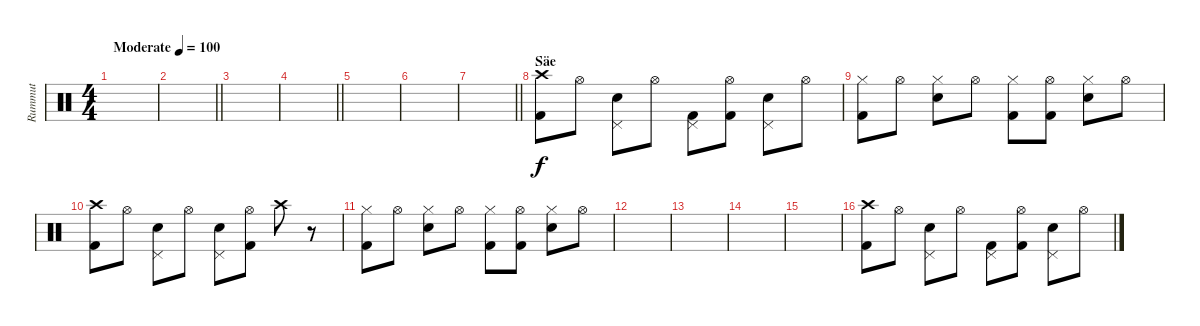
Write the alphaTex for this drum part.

\track ("Rummut" "Rummut") {instrument percussion}
\staff {score}
\articulation defaults
\ts (4 4)
\tempo (100 "Moderate")
\clef neutral
\ks c
|
\barLineRight lightlight
|
|
\barLineRight lightlight
|
|
|
\barLineRight lightlight
|
\section ("" "Säe")
("Crash high (hit)" "Kick (hit) 2").8 "Hi-Hat (open)".8 ("Pedal Hi-Hat (hit)" "Snare (hit) 2").8 "Hi-Hat (open)".8 ("Pedal Hi-Hat (hit)" "Kick (hit) 2").8 ("Hi-Hat (open)" "Kick (hit) 2").8 ("Pedal Hi-Hat (hit)" "Snare (hit) 2").8 "Hi-Hat (open)".8 |
("Hi-Hat (closed)" "Kick (hit) 2").8 "Hi-Hat (open)".8 ("Hi-Hat (closed)" "Snare (hit) 2").8 "Hi-Hat (open)".8 ("Hi-Hat (closed)" "Kick (hit) 2").8 ("Hi-Hat (open)" "Kick (hit) 2").8 ("Hi-Hat (closed)" "Snare (hit) 2").8 "Hi-Hat (open)".8 |
("Crash high (hit)" "Kick (hit) 2").8 "Hi-Hat (open)".8 ("Pedal Hi-Hat (hit)" "Snare (hit) 2").8 "Hi-Hat (open)".8 ("Pedal Hi-Hat (hit)" "Snare (hit) 2").8 ("Hi-Hat (open)" "Kick (hit) 2").8 "Crash high (hit)".8 r.8 |
("Hi-Hat (closed)" "Kick (hit) 2").8 "Hi-Hat (open)".8 ("Hi-Hat (closed)" "Snare (hit) 2").8 "Hi-Hat (open)".8 ("Hi-Hat (closed)" "Kick (hit) 2").8 ("Hi-Hat (open)" "Kick (hit) 2").8 ("Hi-Hat (closed)" "Snare (hit) 2").8 "Hi-Hat (open)".8 |
|
|
|
|
("Crash high (hit)" "Kick (hit) 2").8 "Hi-Hat (open)".8 ("Pedal Hi-Hat (hit)" "Snare (hit) 2").8 "Hi-Hat (open)".8 ("Pedal Hi-Hat (hit)" "Kick (hit) 2").8 ("Hi-Hat (open)" "Kick (hit) 2").8 ("Pedal Hi-Hat (hit)" "Snare (hit) 2").8 "Hi-Hat (open)".8
